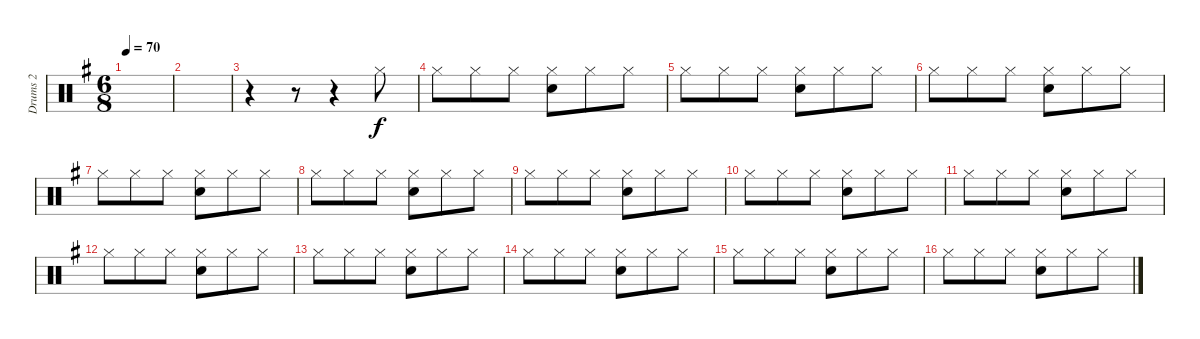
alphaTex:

\track ("Drums 2" "Drums 2") {instrument percussion}
\staff {score}
\articulation defaults
\ts (6 8)
\tempo 70
\clef neutral
\ks g
|
|
r.4 r.8 r.4 "Hi-Hat (closed)".8 |
"Hi-Hat (closed)".8 "Hi-Hat (closed)".8 "Hi-Hat (closed)".8 ("Snare (hit) 2" "Hi-Hat (closed)").8 "Hi-Hat (closed)".8 "Hi-Hat (closed)".8 |
"Hi-Hat (closed)".8 "Hi-Hat (closed)".8 "Hi-Hat (closed)".8 ("Snare (hit) 2" "Hi-Hat (closed)").8 "Hi-Hat (closed)".8 "Hi-Hat (closed)".8 |
"Hi-Hat (closed)".8 "Hi-Hat (closed)".8 "Hi-Hat (closed)".8 ("Snare (hit) 2" "Hi-Hat (closed)").8 "Hi-Hat (closed)".8 "Hi-Hat (closed)".8 |
"Hi-Hat (closed)".8 "Hi-Hat (closed)".8 "Hi-Hat (closed)".8 ("Snare (hit) 2" "Hi-Hat (closed)").8 "Hi-Hat (closed)".8 "Hi-Hat (closed)".8 |
"Hi-Hat (closed)".8 "Hi-Hat (closed)".8 "Hi-Hat (closed)".8 ("Snare (hit) 2" "Hi-Hat (closed)").8 "Hi-Hat (closed)".8 "Hi-Hat (closed)".8 |
"Hi-Hat (closed)".8 "Hi-Hat (closed)".8 "Hi-Hat (closed)".8 ("Snare (hit) 2" "Hi-Hat (closed)").8 "Hi-Hat (closed)".8 "Hi-Hat (closed)".8 |
"Hi-Hat (closed)".8 "Hi-Hat (closed)".8 "Hi-Hat (closed)".8 ("Snare (hit) 2" "Hi-Hat (closed)").8 "Hi-Hat (closed)".8 "Hi-Hat (closed)".8 |
"Hi-Hat (closed)".8 "Hi-Hat (closed)".8 "Hi-Hat (closed)".8 ("Snare (hit) 2" "Hi-Hat (closed)").8 "Hi-Hat (closed)".8 "Hi-Hat (closed)".8 |
"Hi-Hat (closed)".8 "Hi-Hat (closed)".8 "Hi-Hat (closed)".8 ("Snare (hit) 2" "Hi-Hat (closed)").8 "Hi-Hat (closed)".8 "Hi-Hat (closed)".8 |
"Hi-Hat (closed)".8 "Hi-Hat (closed)".8 "Hi-Hat (closed)".8 ("Snare (hit) 2" "Hi-Hat (closed)").8 "Hi-Hat (closed)".8 "Hi-Hat (closed)".8 |
"Hi-Hat (closed)".8 "Hi-Hat (closed)".8 "Hi-Hat (closed)".8 ("Snare (hit) 2" "Hi-Hat (closed)").8 "Hi-Hat (closed)".8 "Hi-Hat (closed)".8 |
"Hi-Hat (closed)".8 "Hi-Hat (closed)".8 "Hi-Hat (closed)".8 ("Snare (hit) 2" "Hi-Hat (closed)").8 "Hi-Hat (closed)".8 "Hi-Hat (closed)".8 |
"Hi-Hat (closed)".8 "Hi-Hat (closed)".8 "Hi-Hat (closed)".8 ("Snare (hit) 2" "Hi-Hat (closed)").8 "Hi-Hat (closed)".8 "Hi-Hat (closed)".8
